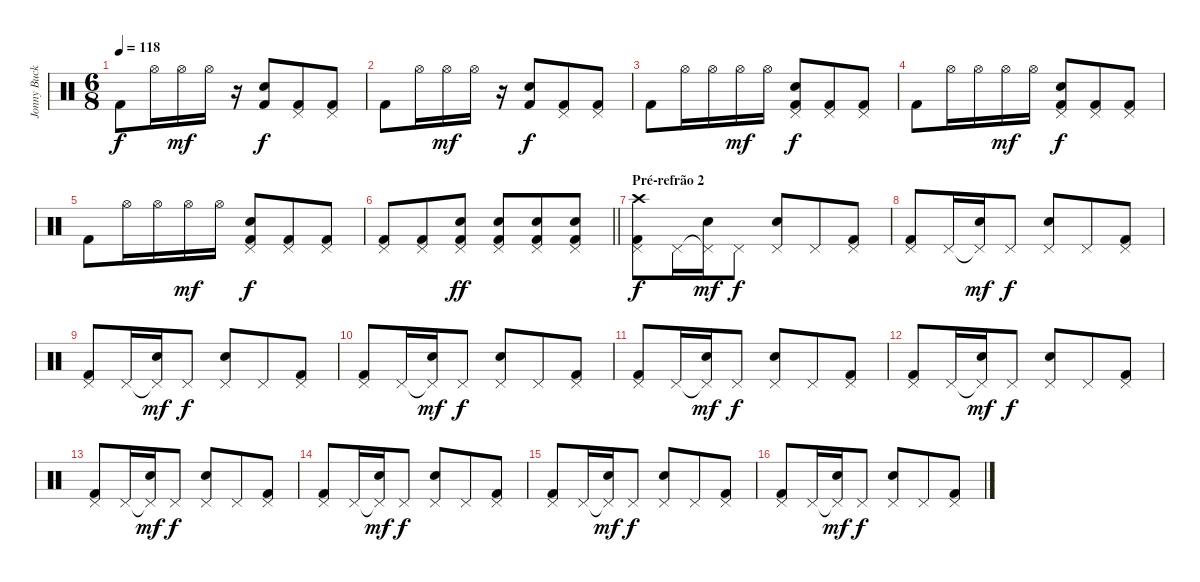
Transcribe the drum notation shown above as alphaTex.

\track ("Jonny Buckland (batera)" "Jonny Buck") {instrument percussion}
\staff {score}
\articulation defaults
\ts (6 8)
\tempo 118
\clef neutral
\ks c "Kick (hit) 2".8{dy f} "Hi-Hat (open)".16 "Hi-Hat (open)".16{dy mf} "Hi-Hat (open)".16
r.16 ("Electric Snare (hit)" "Kick (hit) 2").8{dy f} ("Pedal Hi-Hat (hit)" "Kick (hit) 2").8 ("Pedal Hi-Hat (hit)" "Kick (hit) 2").8 |
"Kick (hit) 2".8 "Hi-Hat (open)".16 "Hi-Hat (open)".16{dy mf} "Hi-Hat (open)".16 r.16 ("Electric Snare (hit)" "Kick (hit) 2").8{dy f} ("Pedal Hi-Hat (hit)" "Kick (hit) 2").8 ("Pedal Hi-Hat (hit)" "Kick (hit) 2").8 |
"Kick (hit) 2".8 "Hi-Hat (open)".16 "Hi-Hat (open)".16 "Hi-Hat (open)".16{dy mf} "Hi-Hat (open)".16 ("Pedal Hi-Hat (hit)" "Electric Snare (hit)" "Kick (hit) 2").8{dy f} ("Pedal Hi-Hat (hit)" "Kick (hit) 2").8 ("Pedal Hi-Hat (hit)" "Kick (hit) 2").8 |
"Kick (hit) 2".8 "Hi-Hat (open)".16 "Hi-Hat (open)".16 "Hi-Hat (open)".16{dy mf} "Hi-Hat (open)".16 ("Pedal Hi-Hat (hit)" "Electric Snare (hit)" "Kick (hit) 2").8{dy f} ("Pedal Hi-Hat (hit)" "Kick (hit) 2").8 ("Pedal Hi-Hat (hit)" "Kick (hit) 2").8 |
"Kick (hit) 2".8 "Hi-Hat (open)".16 "Hi-Hat (open)".16 "Hi-Hat (open)".16{dy mf} "Hi-Hat (open)".16 ("Pedal Hi-Hat (hit)" "Electric Snare (hit)" "Kick (hit) 2").8{dy f} ("Pedal Hi-Hat (hit)" "Kick (hit) 2").8 ("Pedal Hi-Hat (hit)" "Kick (hit) 2").8 |
\barLineRight lightlight
("Pedal Hi-Hat (hit)" "Kick (hit) 2").8 ("Pedal Hi-Hat (hit)" "Kick (hit) 2").8 ("Pedal Hi-Hat (hit)" "Electric Snare (hit)" "Kick (hit) 2").8{dy ff} ("Pedal Hi-Hat (hit)" "Electric Snare (hit)" "Kick (hit) 2").8 ("Pedal Hi-Hat (hit)" "Electric Snare (hit)" "Kick (hit) 2").8 ("Pedal Hi-Hat (hit)" "Electric Snare (hit)" "Kick (hit) 2").8 |
\section ("" "Pré-refrão 2")
("Crash high (hit)" "Pedal Hi-Hat (hit)" "Kick (hit) 2").8{dy f} "Pedal Hi-Hat (hit)".16 ("Pedal Hi-Hat (hit)"{t} "Snare (hit) 2").16{dy mf} "Pedal Hi-Hat (hit)".8{dy f} ("Pedal Hi-Hat (hit)" "Electric Snare (hit)").8 "Pedal Hi-Hat (hit)".8 ("Pedal Hi-Hat (hit)" "Kick (hit) 2").8 |
("Pedal Hi-Hat (hit)" "Kick (hit) 2").8 "Pedal Hi-Hat (hit)".16 ("Pedal Hi-Hat (hit)"{t} "Snare (hit) 2").16{dy mf} "Pedal Hi-Hat (hit)".8{dy f} ("Pedal Hi-Hat (hit)" "Electric Snare (hit)").8 "Pedal Hi-Hat (hit)".8 ("Pedal Hi-Hat (hit)" "Kick (hit) 2").8 |
("Pedal Hi-Hat (hit)" "Kick (hit) 2").8 "Pedal Hi-Hat (hit)".16 ("Pedal Hi-Hat (hit)"{t} "Snare (hit) 2").16{dy mf} "Pedal Hi-Hat (hit)".8{dy f} ("Pedal Hi-Hat (hit)" "Electric Snare (hit)").8 "Pedal Hi-Hat (hit)".8 ("Pedal Hi-Hat (hit)" "Kick (hit) 2").8 |
("Pedal Hi-Hat (hit)" "Kick (hit) 2").8 "Pedal Hi-Hat (hit)".16 ("Pedal Hi-Hat (hit)"{t} "Snare (hit) 2").16{dy mf} "Pedal Hi-Hat (hit)".8{dy f} ("Pedal Hi-Hat (hit)" "Electric Snare (hit)").8 "Pedal Hi-Hat (hit)".8 ("Pedal Hi-Hat (hit)" "Kick (hit) 2").8 |
("Pedal Hi-Hat (hit)" "Kick (hit) 2").8 "Pedal Hi-Hat (hit)".16 ("Pedal Hi-Hat (hit)"{t} "Snare (hit) 2").16{dy mf} "Pedal Hi-Hat (hit)".8{dy f} ("Pedal Hi-Hat (hit)" "Electric Snare (hit)").8 "Pedal Hi-Hat (hit)".8 ("Pedal Hi-Hat (hit)" "Kick (hit) 2").8 |
("Pedal Hi-Hat (hit)" "Kick (hit) 2").8 "Pedal Hi-Hat (hit)".16 ("Pedal Hi-Hat (hit)"{t} "Snare (hit) 2").16{dy mf} "Pedal Hi-Hat (hit)".8{dy f} ("Pedal Hi-Hat (hit)" "Electric Snare (hit)").8 "Pedal Hi-Hat (hit)".8 ("Pedal Hi-Hat (hit)" "Kick (hit) 2").8 |
("Pedal Hi-Hat (hit)" "Kick (hit) 2").8 "Pedal Hi-Hat (hit)".16 ("Pedal Hi-Hat (hit)"{t} "Snare (hit) 2").16{dy mf} "Pedal Hi-Hat (hit)".8{dy f} ("Pedal Hi-Hat (hit)" "Electric Snare (hit)").8 "Pedal Hi-Hat (hit)".8 ("Pedal Hi-Hat (hit)" "Kick (hit) 2").8 |
("Pedal Hi-Hat (hit)" "Kick (hit) 2").8 "Pedal Hi-Hat (hit)".16 ("Pedal Hi-Hat (hit)"{t} "Snare (hit) 2").16{dy mf} "Pedal Hi-Hat (hit)".8{dy f} ("Pedal Hi-Hat (hit)" "Electric Snare (hit)").8 "Pedal Hi-Hat (hit)".8 ("Pedal Hi-Hat (hit)" "Kick (hit) 2").8 |
("Pedal Hi-Hat (hit)" "Kick (hit) 2").8 "Pedal Hi-Hat (hit)".16 ("Pedal Hi-Hat (hit)"{t} "Snare (hit) 2").16{dy mf} "Pedal Hi-Hat (hit)".8{dy f} ("Pedal Hi-Hat (hit)" "Electric Snare (hit)").8 "Pedal Hi-Hat (hit)".8 ("Pedal Hi-Hat (hit)" "Kick (hit) 2").8 |
("Pedal Hi-Hat (hit)" "Kick (hit) 2").8 "Pedal Hi-Hat (hit)".16 ("Pedal Hi-Hat (hit)"{t} "Snare (hit) 2").16{dy mf} "Pedal Hi-Hat (hit)".8{dy f} ("Pedal Hi-Hat (hit)" "Electric Snare (hit)").8 "Pedal Hi-Hat (hit)".8 ("Pedal Hi-Hat (hit)" "Kick (hit) 2").8
